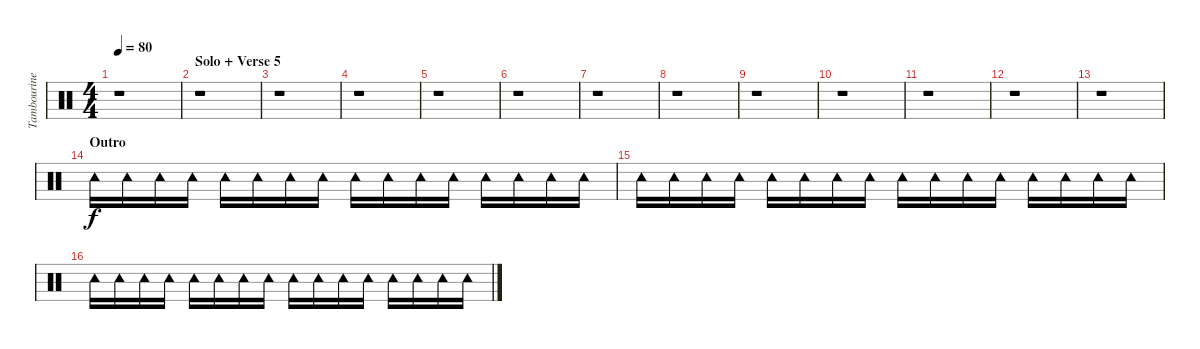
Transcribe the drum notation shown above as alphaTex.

\track ("Tambourine" "Tambourine") {instrument percussion}
\staff {score}
\articulation defaults
\ts (4 4)
\tempo 80
\clef neutral
\ks c
r.1{dy f} |
\section ("" "Solo + Verse 5")
r.1 |
r.1 |
r.1 |
r.1 |
r.1 |
r.1 |
r.1 |
r.1 |
r.1 |
r.1 |
r.1 |
r.1 |
\section ("" "Outro")
"Tambourine (hit)".16 "Tambourine (hit)".16 "Tambourine (hit)".16 "Tambourine (hit)".16 "Tambourine (hit)".16 "Tambourine (hit)".16 "Tambourine (hit)".16 "Tambourine (hit)".16 "Tambourine (hit)".16 "Tambourine (hit)".16 "Tambourine (hit)".16 "Tambourine (hit)".16 "Tambourine (hit)".16 "Tambourine (hit)".16 "Tambourine (hit)".16 "Tambourine (hit)".16 |
"Tambourine (hit)".16 "Tambourine (hit)".16 "Tambourine (hit)".16 "Tambourine (hit)".16 "Tambourine (hit)".16 "Tambourine (hit)".16 "Tambourine (hit)".16 "Tambourine (hit)".16 "Tambourine (hit)".16 "Tambourine (hit)".16 "Tambourine (hit)".16 "Tambourine (hit)".16 "Tambourine (hit)".16 "Tambourine (hit)".16 "Tambourine (hit)".16 "Tambourine (hit)".16 |
"Tambourine (hit)".16 "Tambourine (hit)".16 "Tambourine (hit)".16 "Tambourine (hit)".16 "Tambourine (hit)".16 "Tambourine (hit)".16 "Tambourine (hit)".16 "Tambourine (hit)".16 "Tambourine (hit)".16 "Tambourine (hit)".16 "Tambourine (hit)".16 "Tambourine (hit)".16 "Tambourine (hit)".16 "Tambourine (hit)".16 "Tambourine (hit)".16 "Tambourine (hit)".16
